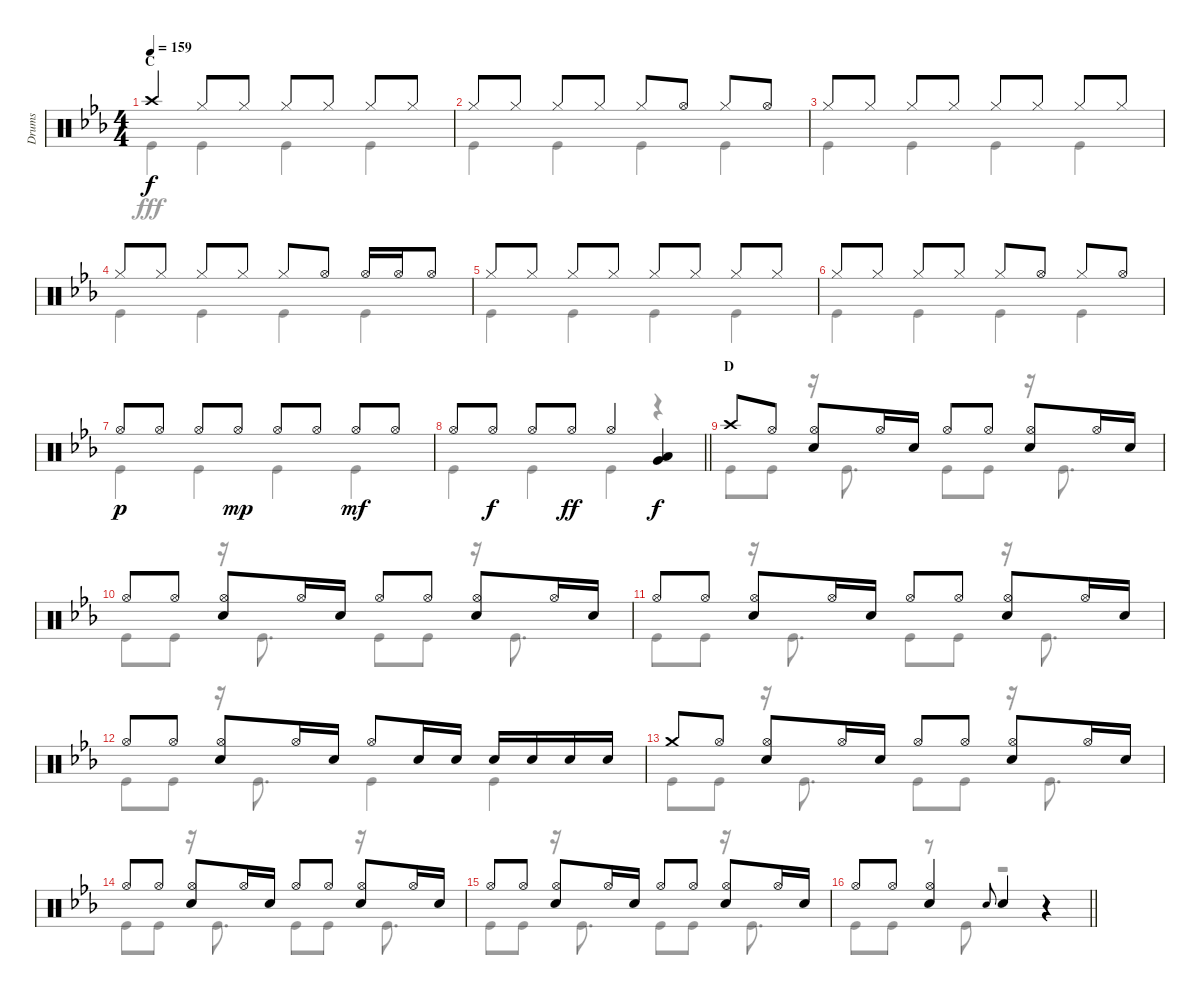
\track ("Drums" "Drums") {instrument percussion}
\staff {score}
\articulation defaults
\voice
\ts (4 4)
\section ("" "C")
\tempo 159
\clef neutral
\ks eb "Crash high (hit)".4{dy f} "Hi-Hat (closed)".8 "Hi-Hat (closed)".8 "Hi-Hat (closed)".8 "Hi-Hat (closed)".8 "Hi-Hat (closed)".8 "Hi-Hat (closed)".8
|
"Hi-Hat (closed)".8 "Hi-Hat (closed)".8 "Hi-Hat (closed)".8 "Hi-Hat (closed)".8 "Hi-Hat (closed)".8 "Hi-Hat (open)".8 "Hi-Hat (closed)".8 "Hi-Hat (open)".8 |
"Hi-Hat (closed)".8 "Hi-Hat (closed)".8 "Hi-Hat (closed)".8 "Hi-Hat (closed)".8 "Hi-Hat (closed)".8 "Hi-Hat (closed)".8 "Hi-Hat (closed)".8 "Hi-Hat (closed)".8 |
"Hi-Hat (closed)".8 "Hi-Hat (closed)".8 "Hi-Hat (closed)".8 "Hi-Hat (closed)".8 "Hi-Hat (closed)".8 "Hi-Hat (open)".8 "Hi-Hat (open)".16 "Hi-Hat (open)".16 "Hi-Hat (open)".8 |
"Hi-Hat (closed)".8 "Hi-Hat (closed)".8 "Hi-Hat (closed)".8 "Hi-Hat (closed)".8 "Hi-Hat (closed)".8 "Hi-Hat (closed)".8 "Hi-Hat (closed)".8 "Hi-Hat (closed)".8 |
"Hi-Hat (closed)".8 "Hi-Hat (closed)".8 "Hi-Hat (closed)".8 "Hi-Hat (closed)".8 "Hi-Hat (closed)".8 "Hi-Hat (open)".8 "Hi-Hat (closed)".8 "Hi-Hat (open)".8 |
"Hi-Hat (open)".8{dy p} "Hi-Hat (open)".8 "Hi-Hat (open)".8 "Hi-Hat (open)".8{dy mp} "Hi-Hat (open)".8 "Hi-Hat (open)".8 "Hi-Hat (open)".8{dy mf} "Hi-Hat (open)".8 |
\barLineRight lightlight "Hi-Hat (open)".8 "Hi-Hat (open)".8{dy f} "Hi-Hat (open)".8 "Hi-Hat (open)".8{dy ff} "Hi-Hat (open)".4
("Low Tom (hit)" "Very Low Tom (hit)").4{dy f} |
\section ("" "D")
"Crash high (hit)".8 "Hi-Hat (open)".8 ("Hi-Hat (open)" "Snare (hit) 2").8 "Hi-Hat (open)".16 "Snare (hit) 2".16 "Hi-Hat (open)".8 "Hi-Hat (open)".8 ("Hi-Hat (open)" "Snare (hit) 2").8 "Hi-Hat (open)".16 "Snare (hit) 2".16 |
"Hi-Hat (open)".8 "Hi-Hat (open)".8 ("Hi-Hat (open)" "Snare (hit) 2").8 "Hi-Hat (open)".16 "Snare (hit) 2".16 "Hi-Hat (open)".8 "Hi-Hat (open)".8 ("Hi-Hat (open)" "Snare (hit) 2").8 "Hi-Hat (open)".16 "Snare (hit) 2".16 |
"Hi-Hat (open)".8 "Hi-Hat (open)".8 ("Hi-Hat (open)" "Snare (hit) 2").8 "Hi-Hat (open)".16 "Snare (hit) 2".16 "Hi-Hat (open)".8 "Hi-Hat (open)".8 ("Hi-Hat (open)" "Snare (hit) 2").8 "Hi-Hat (open)".16 "Snare (hit) 2".16 |
"Hi-Hat (open)".8 "Hi-Hat (open)".8 ("Hi-Hat (open)" "Snare (hit) 2").8 "Hi-Hat (open)".16 "Snare (hit) 2".16 "Hi-Hat (open)".8 "Snare (hit) 2".16 "Snare (hit) 2".16 "Snare (hit) 2".16 "Snare (hit) 2".16 "Snare (hit) 2".16 "Snare (hit) 2".16 |
"Crash medium (hit)".8 "Hi-Hat (open)".8 ("Hi-Hat (open)" "Snare (hit) 2").8 "Hi-Hat (open)".16 "Snare (hit) 2".16 "Hi-Hat (open)".8 "Hi-Hat (open)".8 ("Hi-Hat (open)" "Snare (hit) 2").8 "Hi-Hat (open)".16 "Snare (hit) 2".16 |
"Hi-Hat (open)".8 "Hi-Hat (open)".8 ("Hi-Hat (open)" "Snare (hit) 2").8 "Hi-Hat (open)".16 "Snare (hit) 2".16 "Hi-Hat (open)".8 "Hi-Hat (open)".8 ("Hi-Hat (open)" "Snare (hit) 2").8 "Hi-Hat (open)".16 "Snare (hit) 2".16 |
"Hi-Hat (open)".8 "Hi-Hat (open)".8 ("Hi-Hat (open)" "Snare (hit) 2").8 "Hi-Hat (open)".16 "Snare (hit) 2".16 "Hi-Hat (open)".8 "Hi-Hat (open)".8 ("Hi-Hat (open)" "Snare (hit) 2").8 "Hi-Hat (open)".16 "Snare (hit) 2".16 |
\barLineRight lightlight "Hi-Hat (open)".8 "Hi-Hat (open)".8
("Hi-Hat (open)" "Snare (hit) 2").4 "Snare (hit) 2".8{gr onbeat} "Snare (hit) 2".4 r.4
\voice
\clef neutral
\ottava regular
\simile none
\ks eb "Kick (hit)".4{dy fff} "Kick (hit)".4 "Kick (hit)".4 "Kick (hit)".4
|
"Kick (hit)".4 "Kick (hit)".4 "Kick (hit)".4 "Kick (hit)".4 |
"Kick (hit)".4 "Kick (hit)".4 "Kick (hit)".4 "Kick (hit)".4 |
"Kick (hit)".4 "Kick (hit)".4 "Kick (hit)".4 "Kick (hit)".4 |
"Kick (hit)".4 "Kick (hit)".4 "Kick (hit)".4 "Kick (hit)".4 |
"Kick (hit)".4 "Kick (hit)".4 "Kick (hit)".4 "Kick (hit)".4 |
"Kick (hit)".4 "Kick (hit)".4 "Kick (hit)".4 "Kick (hit)".4 |
\barLineRight lightlight "Kick (hit)".4 "Kick (hit)".4 "Kick (hit)".4
r.4 |
"Kick (hit)".8 "Kick (hit)".8 r.16 "Kick (hit)".8{d} "Kick (hit)".8 "Kick (hit)".8 r.16 "Kick (hit)".8{d} |
"Kick (hit)".8 "Kick (hit)".8 r.16 "Kick (hit)".8{d} "Kick (hit)".8 "Kick (hit)".8 r.16 "Kick (hit)".8{d} |
"Kick (hit)".8 "Kick (hit)".8 r.16 "Kick (hit)".8{d} "Kick (hit)".8 "Kick (hit)".8 r.16 "Kick (hit)".8{d} |
"Kick (hit)".8 "Kick (hit)".8 r.16 "Kick (hit)".8{d} "Kick (hit)".4 "Kick (hit)".4 |
"Kick (hit)".8 "Kick (hit)".8 r.16 "Kick (hit)".8{d} "Kick (hit)".8 "Kick (hit)".8 r.16 "Kick (hit)".8{d} |
"Kick (hit)".8 "Kick (hit)".8 r.16 "Kick (hit)".8{d} "Kick (hit)".8 "Kick (hit)".8 r.16 "Kick (hit)".8{d} |
"Kick (hit)".8 "Kick (hit)".8 r.16 "Kick (hit)".8{d} "Kick (hit)".8 "Kick (hit)".8 r.16 "Kick (hit)".8{d} |
\barLineRight lightlight "Kick (hit)".8 "Kick (hit)".8
r.8 "Kick (hit)".8 r.2
